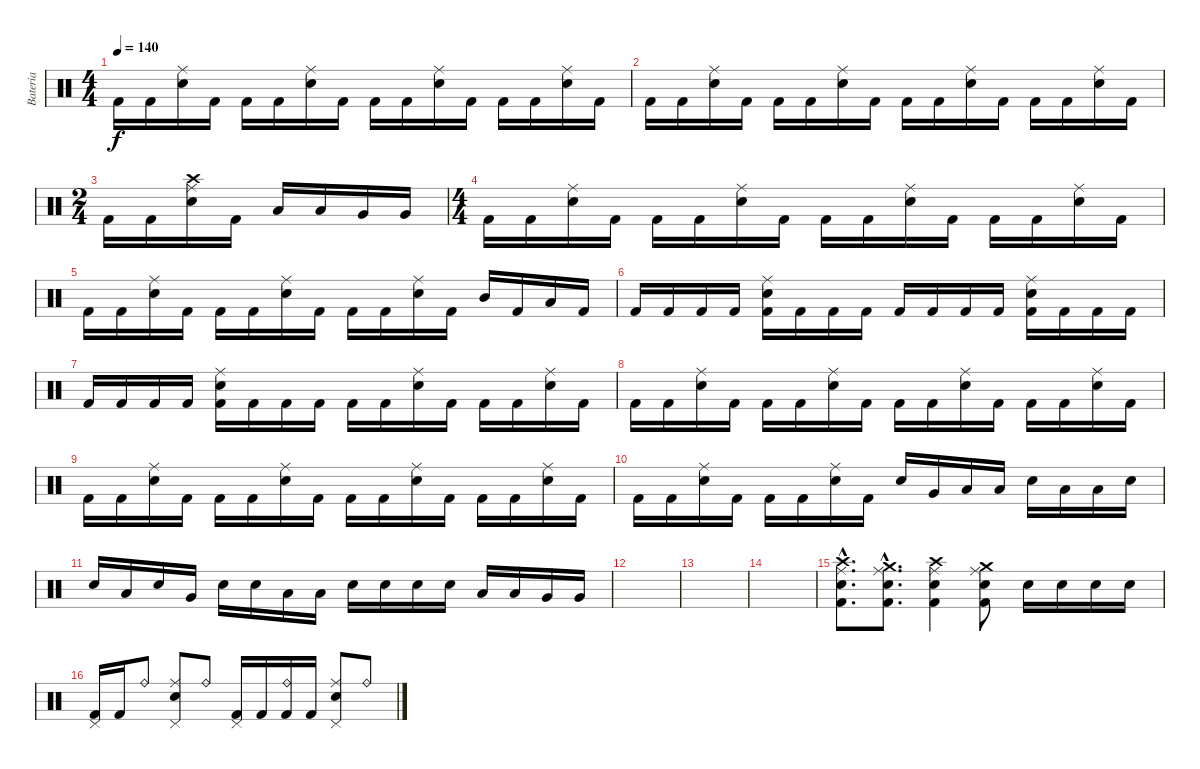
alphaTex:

\track ("Bateria" "Bateria") {instrument percussion}
\staff {score}
\articulation defaults
\ts (4 4)
\tempo 140
\clef neutral
\ks c "Kick (hit) 2".16{dy f} "Kick (hit) 2".16
("Electric Snare (hit)" "Ride (middle)").16 "Kick (hit) 2".16 "Kick (hit) 2".16 "Kick (hit) 2".16 ("Electric Snare (hit)" "Ride (middle)").16 "Kick (hit) 2".16 "Kick (hit) 2".16 "Kick (hit) 2".16 ("Electric Snare (hit)" "Ride (middle)").16 "Kick (hit) 2".16 "Kick (hit) 2".16 "Kick (hit) 2".16 ("Electric Snare (hit)" "Ride (middle)").16 "Kick (hit) 2".16 |
"Kick (hit) 2".16 "Kick (hit) 2".16 ("Electric Snare (hit)" "Ride (middle)").16 "Kick (hit) 2".16 "Kick (hit) 2".16 "Kick (hit) 2".16 ("Electric Snare (hit)" "Ride (middle)").16 "Kick (hit) 2".16 "Kick (hit) 2".16 "Kick (hit) 2".16 ("Electric Snare (hit)" "Ride (middle)").16 "Kick (hit) 2".16 "Kick (hit) 2".16 "Kick (hit) 2".16 ("Electric Snare (hit)" "Ride (middle)").16 "Kick (hit) 2".16 |
\ts (2 4)
"Kick (hit) 2".16 "Kick (hit) 2".16 ("Electric Snare (hit)" "Ride (middle)" "Crash high (hit)").16 "Kick (hit) 2".16 "Low Tom (hit)".16 "Low Tom (hit)".16 "Very Low Tom (hit)".16 "Very Low Tom (hit)".16 |
\ts (4 4)
"Kick (hit) 2".16 "Kick (hit) 2".16 ("Electric Snare (hit)" "Ride (middle)").16 "Kick (hit) 2".16 "Kick (hit) 2".16 "Kick (hit) 2".16 ("Electric Snare (hit)" "Ride (middle)").16 "Kick (hit) 2".16 "Kick (hit) 2".16 "Kick (hit) 2".16 ("Electric Snare (hit)" "Ride (middle)").16 "Kick (hit) 2".16 "Kick (hit) 2".16 "Kick (hit) 2".16 ("Electric Snare (hit)" "Ride (middle)").16 "Kick (hit) 2".16 |
"Kick (hit) 2".16 "Kick (hit) 2".16 ("Electric Snare (hit)" "Ride (middle)").16 "Kick (hit) 2".16 "Kick (hit) 2".16 "Kick (hit) 2".16 ("Electric Snare (hit)" "Ride (middle)").16 "Kick (hit) 2".16 "Kick (hit) 2".16 "Kick (hit) 2".16 ("Electric Snare (hit)" "Ride (middle)").16 "Kick (hit) 2".16 "Mid Tom (hit)".16 "Kick (hit) 2".16 "Low Tom (hit)".16 "Kick (hit) 2".16 |
"Kick (hit) 2".16 "Kick (hit) 2".16 "Kick (hit) 2".16 "Kick (hit) 2".16 ("Kick (hit) 2" "Electric Snare (hit)" "Ride (middle)").16 "Kick (hit) 2".16 "Kick (hit) 2".16 "Kick (hit) 2".16 "Kick (hit) 2".16 "Kick (hit) 2".16 "Kick (hit) 2".16 "Kick (hit) 2".16 ("Kick (hit) 2" "Electric Snare (hit)" "Ride (middle)").16 "Kick (hit) 2".16 "Kick (hit) 2".16 "Kick (hit) 2".16 |
"Kick (hit) 2".16 "Kick (hit) 2".16 "Kick (hit) 2".16 "Kick (hit) 2".16 ("Kick (hit) 2" "Electric Snare (hit)" "Ride (middle)").16 "Kick (hit) 2".16 "Kick (hit) 2".16 "Kick (hit) 2".16 "Kick (hit) 2".16 "Kick (hit) 2".16 ("Electric Snare (hit)" "Ride (middle)").16 "Kick (hit) 2".16 "Kick (hit) 2".16 "Kick (hit) 2".16 ("Electric Snare (hit)" "Ride (middle)").16 "Kick (hit) 2".16 |
"Kick (hit) 2".16 "Kick (hit) 2".16 ("Electric Snare (hit)" "Ride (middle)").16 "Kick (hit) 2".16 "Kick (hit) 2".16 "Kick (hit) 2".16 ("Electric Snare (hit)" "Ride (middle)").16 "Kick (hit) 2".16 "Kick (hit) 2".16 "Kick (hit) 2".16 ("Electric Snare (hit)" "Ride (middle)").16 "Kick (hit) 2".16 "Kick (hit) 2".16 "Kick (hit) 2".16 ("Electric Snare (hit)" "Ride (middle)").16 "Kick (hit) 2".16 |
"Kick (hit) 2".16 "Kick (hit) 2".16 ("Electric Snare (hit)" "Ride (middle)").16 "Kick (hit) 2".16 "Kick (hit) 2".16 "Kick (hit) 2".16 ("Electric Snare (hit)" "Ride (middle)").16 "Kick (hit) 2".16 "Kick (hit) 2".16 "Kick (hit) 2".16 ("Electric Snare (hit)" "Ride (middle)").16 "Kick (hit) 2".16 "Kick (hit) 2".16 "Kick (hit) 2".16 ("Electric Snare (hit)" "Ride (middle)").16 "Kick (hit) 2".16 |
"Kick (hit) 2".16 "Kick (hit) 2".16 ("Electric Snare (hit)" "Ride (middle)").16 "Kick (hit) 2".16 "Kick (hit) 2".16 "Kick (hit) 2".16 ("Electric Snare (hit)" "Ride (middle)").16 "Kick (hit) 2".16 "Electric Snare (hit)".16 "Very Low Tom (hit)".16 "Low Floor Tom (hit)".16 "Low Tom (hit)".16 "Electric Snare (hit)".16 "Low Tom (hit)".16 "Low Tom (hit)".16 "Electric Snare (hit)".16 |
"Electric Snare (hit)".16 "Low Tom (hit)".16 "Electric Snare (hit)".16 "Very Low Tom (hit)".16 "Electric Snare (hit)".16 "Electric Snare (hit)".16 "Low Tom (hit)".16 "Low Tom (hit)".16 "Electric Snare (hit)".16 "Electric Snare (hit)".16 "Electric Snare (hit)".16 "Electric Snare (hit)".16 "Low Tom (hit)".16 "Low Tom (hit)".16 "Very Low Tom (hit)".16 "Very Low Tom (hit)".16 |
|
|
|
("Kick (hit) 2"{hac} "Electric Snare (hit)"{hac} "Ride (middle)"{hac} "Crash high (hit)"{hac}).8{d} ("Kick (hit) 2" "Electric Snare (hit)"{hac} "Ride (middle)"{hac} "Crash medium (hit)"{hac}).8{d} ("Kick (hit) 2" "Electric Snare (hit)" "Ride (middle)" "Crash high (hit)").4 ("Kick (hit) 2" "Electric Snare (hit)" "Ride (middle)" "Crash medium (hit)").8 "Electric Snare (hit)".16 "Electric Snare (hit)".16 "Electric Snare (hit)".16 "Electric Snare (hit)".16 |
("Pedal Hi-Hat (hit)" "Kick (hit) 2").16 "Kick (hit) 2".16 "Ride (bell)".8 ("Pedal Hi-Hat (hit)" "Electric Snare (hit)" "Ride (middle)").8 "Ride (bell)".8 ("Pedal Hi-Hat (hit)" "Kick (hit) 2").16 "Kick (hit) 2".16 ("Ride (bell)" "Kick (hit) 2").16 "Kick (hit) 2".16 ("Pedal Hi-Hat (hit)" "Electric Snare (hit)" "Ride (middle)").8 "Ride (bell)".8
